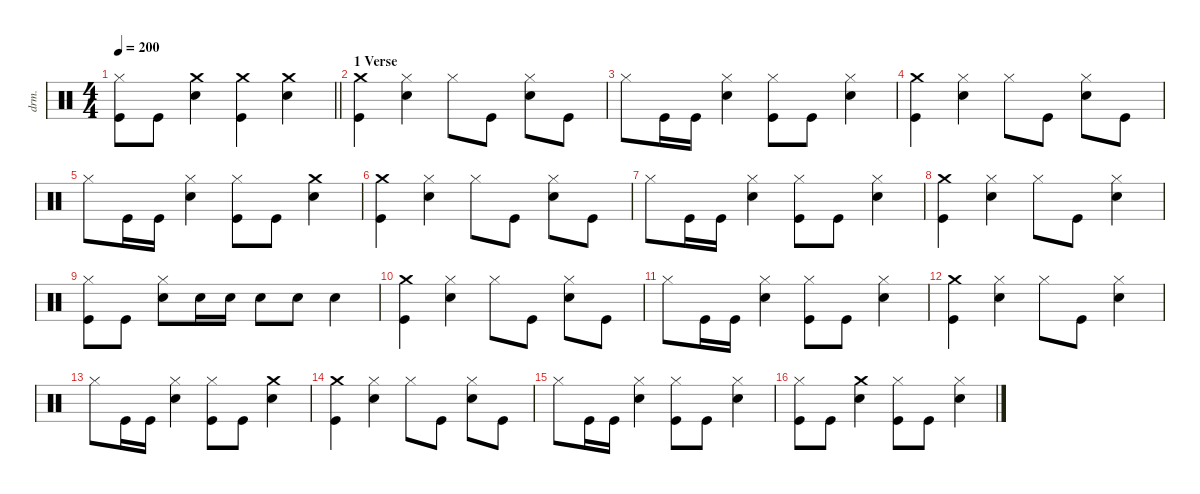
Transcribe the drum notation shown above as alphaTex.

\defaultSystemsLayout 4
\hideDynamics
\bracketExtendMode nobrackets
\otherSystemsTrackNameOrientation horizontal
\track ("Lars Ulrich (Drums)" "drm.") {instrument percussion}
\staff {score}
\articulation defaults
\ts (4 4)
\tempo 200
\clef neutral
\barLineRight lightlight
\ks c
("Kick (hit)" "Hi-Hat (closed)").8{dy f beam Down} "Kick (hit)".8{beam Down} ("Crash medium (hit)" "Snare (hit) 2").4{beam Down} ("Kick (hit)" "Crash medium (hit)").4{beam Down} ("Snare (hit) 2" "Crash medium (hit)").4{beam Down} |
\section ("" "1 Verse")
("Kick (hit)" "Crash medium (hit)").4{beam Down} ("Snare (hit) 2" "Hi-Hat (closed)").4{beam Down} "Hi-Hat (closed)".8{beam Down} "Kick (hit)".8{beam Down} ("Snare (hit) 2" "Hi-Hat (closed)").8{beam Down} "Kick (hit)".8{beam Down} |
"Hi-Hat (closed)".8{beam Down} "Kick (hit)".16{beam Down} "Kick (hit)".16{beam Down} ("Snare (hit) 2" "Hi-Hat (closed)").4{beam Down} ("Kick (hit)" "Hi-Hat (closed)").8{beam Down} "Kick (hit)".8{beam Down} ("Snare (hit) 2" "Hi-Hat (closed)").4{beam Down} |
("Kick (hit)" "Crash medium (hit)").4{beam Down} ("Hi-Hat (closed)" "Snare (hit) 2").4{beam Down} "Hi-Hat (closed)".8{beam Down} "Kick (hit)".8{beam Down} ("Snare (hit) 2" "Hi-Hat (closed)").8{beam Down} "Kick (hit)".8{beam Down} |
"Hi-Hat (closed)".8{beam Down} "Kick (hit)".16{beam Down} "Kick (hit)".16{beam Down} ("Snare (hit) 2" "Hi-Hat (closed)").4{beam Down} ("Kick (hit)" "Hi-Hat (closed)").8{beam Down} "Kick (hit)".8{beam Down} ("Crash medium (hit)" "Snare (hit) 2").4{beam Down} |
("Kick (hit)" "Crash medium (hit)").4{beam Down} ("Hi-Hat (closed)" "Snare (hit) 2").4{beam Down} "Hi-Hat (closed)".8{beam Down} "Kick (hit)".8{beam Down} ("Snare (hit) 2" "Hi-Hat (closed)").8{beam Down} "Kick (hit)".8{beam Down} |
"Hi-Hat (closed)".8{beam Down} "Kick (hit)".16{beam Down} "Kick (hit)".16{beam Down} ("Snare (hit) 2" "Hi-Hat (closed)").4{beam Down} ("Kick (hit)" "Hi-Hat (closed)").8{beam Down} "Kick (hit)".8{beam Down} ("Snare (hit) 2" "Hi-Hat (closed)").4{beam Down} |
("Kick (hit)" "Crash medium (hit)").4{beam Down} ("Hi-Hat (closed)" "Snare (hit) 2").4{beam Down} "Hi-Hat (closed)".8{beam Down} "Kick (hit)".8{beam Down} ("Snare (hit) 2" "Hi-Hat (closed)").4{beam Down} |
("Kick (hit)" "Hi-Hat (closed)").8{beam Down} "Kick (hit)".8{beam Down} ("Snare (hit) 2" "Hi-Hat (closed)").8{beam Down} "Snare (hit) 2".16{beam Down} "Snare (hit) 2".16{beam Down} "Snare (hit) 2".8{beam Down} "Snare (hit) 2".8{beam Down} "Snare (hit) 2".4{beam Down} |
("Kick (hit)" "Crash medium (hit)").4{beam Down} ("Hi-Hat (closed)" "Snare (hit) 2").4{beam Down} "Hi-Hat (closed)".8{beam Down} "Kick (hit)".8{beam Down} ("Snare (hit) 2" "Hi-Hat (closed)").8{beam Down} "Kick (hit)".8{beam Down} |
"Hi-Hat (closed)".8{beam Down} "Kick (hit)".16{beam Down} "Kick (hit)".16{beam Down} ("Snare (hit) 2" "Hi-Hat (closed)").4{beam Down} ("Kick (hit)" "Hi-Hat (closed)").8{beam Down} "Kick (hit)".8{beam Down} ("Snare (hit) 2" "Hi-Hat (closed)").4{beam Down} |
("Kick (hit)" "Crash medium (hit)").4{beam Down} ("Hi-Hat (closed)" "Snare (hit) 2").4{beam Down} "Hi-Hat (closed)".8{beam Down} "Kick (hit)".8{beam Down} ("Snare (hit) 2" "Hi-Hat (closed)").4{beam Down} |
"Hi-Hat (closed)".8{beam Down} "Kick (hit)".16{beam Down} "Kick (hit)".16{beam Down} ("Snare (hit) 2" "Hi-Hat (closed)").4{beam Down} ("Kick (hit)" "Hi-Hat (closed)").8{beam Down} "Kick (hit)".8{beam Down} ("Crash medium (hit)" "Snare (hit) 2").4{beam Down} |
("Kick (hit)" "Crash medium (hit)").4{beam Down} ("Hi-Hat (closed)" "Snare (hit) 2").4{beam Down} "Hi-Hat (closed)".8{beam Down} "Kick (hit)".8{beam Down} ("Snare (hit) 2" "Hi-Hat (closed)").8{beam Down} "Kick (hit)".8{beam Down} |
"Hi-Hat (closed)".8{beam Down} "Kick (hit)".16{beam Down} "Kick (hit)".16{beam Down} ("Snare (hit) 2" "Hi-Hat (closed)").4{beam Down} ("Kick (hit)" "Hi-Hat (closed)").8{beam Down} "Kick (hit)".8{beam Down} ("Snare (hit) 2" "Hi-Hat (closed)").4{beam Down} |
("Kick (hit)" "Hi-Hat (closed)").8{beam Down} "Kick (hit)".8{beam Down} ("Snare (hit) 2" "Crash medium (hit)").4{beam Down} ("Kick (hit)" "Hi-Hat (closed)").8{beam Down} "Kick (hit)".8{beam Down} ("Snare (hit) 2" "Hi-Hat (closed)").4{beam Down}
